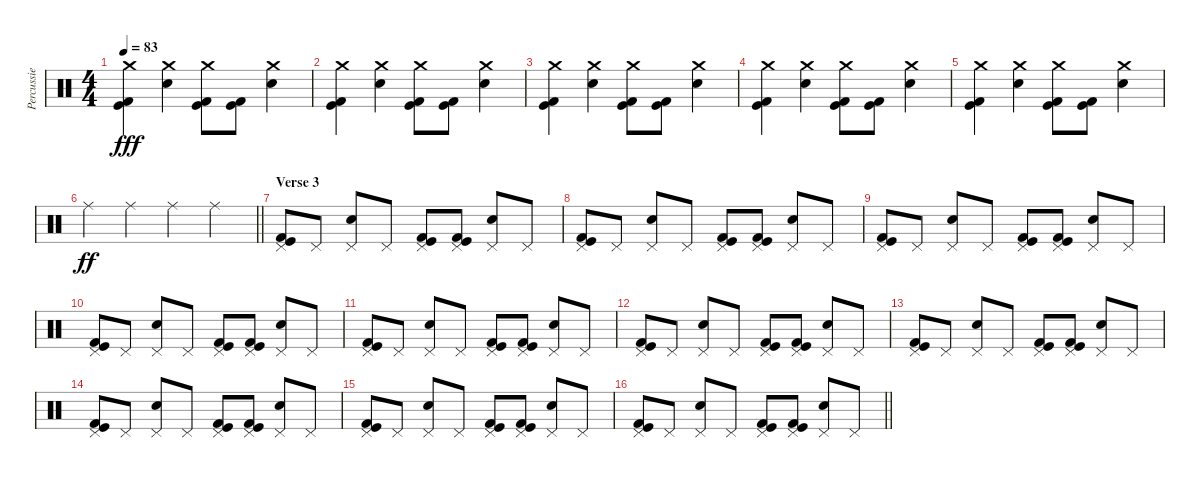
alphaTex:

\track ("Percussie" "Percussie") {instrument percussion}
\staff {score}
\articulation defaults
\ts (4 4)
\tempo 83
\clef neutral
\ks c
("Crash medium (hit)" "Kick (hit)" "Kick (hit) 2").4{dy fff} ("Crash medium (hit)" "Snare (hit) 2").4 ("Crash medium (hit)" "Kick (hit)" "Kick (hit) 2").8 ("Kick (hit)" "Kick (hit) 2").8 ("Crash medium (hit)" "Snare (hit) 2").4 |
("Crash medium (hit)" "Kick (hit)" "Kick (hit) 2").4 ("Crash medium (hit)" "Snare (hit) 2").4 ("Crash medium (hit)" "Kick (hit)" "Kick (hit) 2").8 ("Kick (hit)" "Kick (hit) 2").8 ("Crash medium (hit)" "Snare (hit) 2").4 |
("Crash medium (hit)" "Kick (hit)" "Kick (hit) 2").4 ("Crash medium (hit)" "Snare (hit) 2").4 ("Crash medium (hit)" "Kick (hit)" "Kick (hit) 2").8 ("Kick (hit)" "Kick (hit) 2").8 ("Crash medium (hit)" "Snare (hit) 2").4 |
("Crash medium (hit)" "Kick (hit)" "Kick (hit) 2").4 ("Crash medium (hit)" "Snare (hit) 2").4 ("Crash medium (hit)" "Kick (hit)" "Kick (hit) 2").8 ("Kick (hit)" "Kick (hit) 2").8 ("Crash medium (hit)" "Snare (hit) 2").4 |
("Crash medium (hit)" "Kick (hit)" "Kick (hit) 2").4 ("Crash medium (hit)" "Snare (hit) 2").4 ("Crash medium (hit)" "Kick (hit)" "Kick (hit) 2").8 ("Kick (hit)" "Kick (hit) 2").8 ("Crash medium (hit)" "Snare (hit) 2").4 |
\barLineRight lightlight "Ride (middle)".4{dy ff} "Ride (middle)".4 "Ride (middle)".4 "Ride (middle)".4
|
\section ("" "Verse 3")
("Pedal Hi-Hat (hit)" "Kick (hit)" "Kick (hit) 2").8 "Pedal Hi-Hat (hit)".8 ("Pedal Hi-Hat (hit)" "Snare (hit) 2").8 "Pedal Hi-Hat (hit)".8 ("Pedal Hi-Hat (hit)" "Kick (hit)" "Kick (hit) 2").8 ("Pedal Hi-Hat (hit)" "Kick (hit)" "Kick (hit) 2").8 ("Pedal Hi-Hat (hit)" "Snare (hit) 2").8 "Pedal Hi-Hat (hit)".8 |
("Pedal Hi-Hat (hit)" "Kick (hit)" "Kick (hit) 2").8 "Pedal Hi-Hat (hit)".8 ("Pedal Hi-Hat (hit)" "Snare (hit) 2").8 "Pedal Hi-Hat (hit)".8 ("Pedal Hi-Hat (hit)" "Kick (hit)" "Kick (hit) 2").8 ("Pedal Hi-Hat (hit)" "Kick (hit)" "Kick (hit) 2").8 ("Pedal Hi-Hat (hit)" "Snare (hit) 2").8 "Pedal Hi-Hat (hit)".8 |
("Pedal Hi-Hat (hit)" "Kick (hit)" "Kick (hit) 2").8 "Pedal Hi-Hat (hit)".8 ("Pedal Hi-Hat (hit)" "Snare (hit) 2").8 "Pedal Hi-Hat (hit)".8 ("Pedal Hi-Hat (hit)" "Kick (hit)" "Kick (hit) 2").8 ("Pedal Hi-Hat (hit)" "Kick (hit)" "Kick (hit) 2").8 ("Pedal Hi-Hat (hit)" "Snare (hit) 2").8 "Pedal Hi-Hat (hit)".8 |
("Pedal Hi-Hat (hit)" "Kick (hit)" "Kick (hit) 2").8 "Pedal Hi-Hat (hit)".8 ("Pedal Hi-Hat (hit)" "Snare (hit) 2").8 "Pedal Hi-Hat (hit)".8 ("Pedal Hi-Hat (hit)" "Kick (hit)" "Kick (hit) 2").8 ("Pedal Hi-Hat (hit)" "Kick (hit)" "Kick (hit) 2").8 ("Pedal Hi-Hat (hit)" "Snare (hit) 2").8 "Pedal Hi-Hat (hit)".8 |
("Pedal Hi-Hat (hit)" "Kick (hit)" "Kick (hit) 2").8 "Pedal Hi-Hat (hit)".8 ("Pedal Hi-Hat (hit)" "Snare (hit) 2").8 "Pedal Hi-Hat (hit)".8 ("Pedal Hi-Hat (hit)" "Kick (hit)" "Kick (hit) 2").8 ("Pedal Hi-Hat (hit)" "Kick (hit)" "Kick (hit) 2").8 ("Pedal Hi-Hat (hit)" "Snare (hit) 2").8 "Pedal Hi-Hat (hit)".8 |
("Pedal Hi-Hat (hit)" "Kick (hit)" "Kick (hit) 2").8 "Pedal Hi-Hat (hit)".8 ("Pedal Hi-Hat (hit)" "Snare (hit) 2").8 "Pedal Hi-Hat (hit)".8 ("Pedal Hi-Hat (hit)" "Kick (hit)" "Kick (hit) 2").8 ("Pedal Hi-Hat (hit)" "Kick (hit)" "Kick (hit) 2").8 ("Pedal Hi-Hat (hit)" "Snare (hit) 2").8 "Pedal Hi-Hat (hit)".8 |
("Pedal Hi-Hat (hit)" "Kick (hit)" "Kick (hit) 2").8 "Pedal Hi-Hat (hit)".8 ("Pedal Hi-Hat (hit)" "Snare (hit) 2").8 "Pedal Hi-Hat (hit)".8 ("Pedal Hi-Hat (hit)" "Kick (hit)" "Kick (hit) 2").8 ("Pedal Hi-Hat (hit)" "Kick (hit)" "Kick (hit) 2").8 ("Pedal Hi-Hat (hit)" "Snare (hit) 2").8 "Pedal Hi-Hat (hit)".8 |
("Pedal Hi-Hat (hit)" "Kick (hit)" "Kick (hit) 2").8 "Pedal Hi-Hat (hit)".8 ("Pedal Hi-Hat (hit)" "Snare (hit) 2").8 "Pedal Hi-Hat (hit)".8 ("Pedal Hi-Hat (hit)" "Kick (hit)" "Kick (hit) 2").8 ("Pedal Hi-Hat (hit)" "Kick (hit)" "Kick (hit) 2").8 ("Pedal Hi-Hat (hit)" "Snare (hit) 2").8 "Pedal Hi-Hat (hit)".8 |
("Pedal Hi-Hat (hit)" "Kick (hit)" "Kick (hit) 2").8 "Pedal Hi-Hat (hit)".8 ("Pedal Hi-Hat (hit)" "Snare (hit) 2").8 "Pedal Hi-Hat (hit)".8 ("Pedal Hi-Hat (hit)" "Kick (hit)" "Kick (hit) 2").8 ("Pedal Hi-Hat (hit)" "Kick (hit)" "Kick (hit) 2").8 ("Pedal Hi-Hat (hit)" "Snare (hit) 2").8 "Pedal Hi-Hat (hit)".8 |
\barLineRight lightlight
("Pedal Hi-Hat (hit)" "Kick (hit)" "Kick (hit) 2").8 "Pedal Hi-Hat (hit)".8 ("Pedal Hi-Hat (hit)" "Snare (hit) 2").8 "Pedal Hi-Hat (hit)".8 ("Pedal Hi-Hat (hit)" "Kick (hit)" "Kick (hit) 2").8 ("Pedal Hi-Hat (hit)" "Kick (hit)" "Kick (hit) 2").8 ("Pedal Hi-Hat (hit)" "Snare (hit) 2").8 "Pedal Hi-Hat (hit)".8
